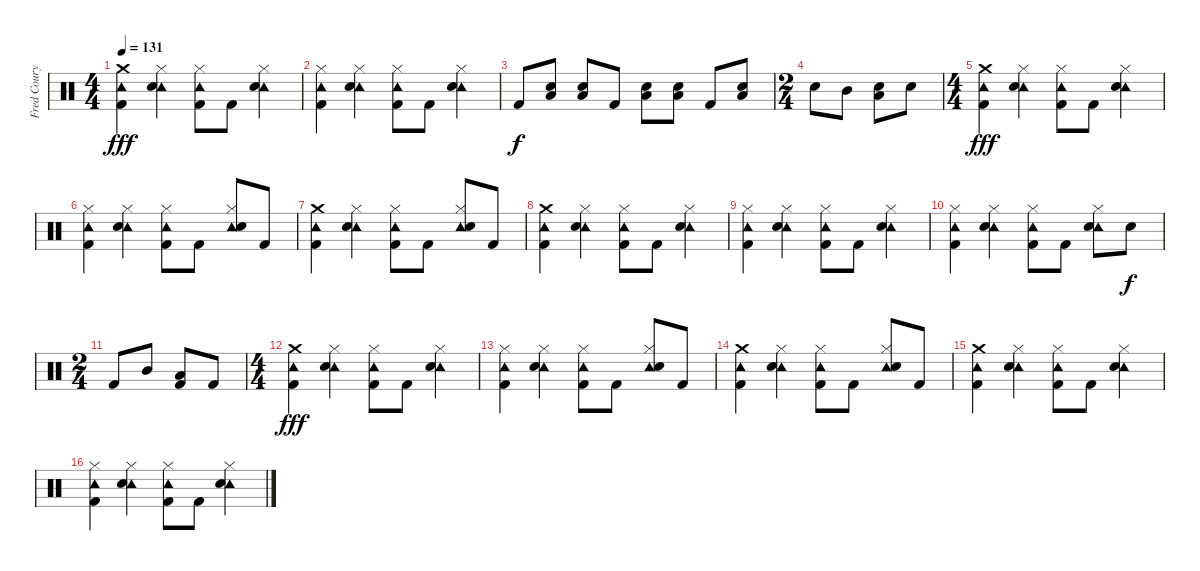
\track ("Fred Coury - Drums" "Fred Coury") {instrument percussion}
\staff {score}
\articulation defaults
\ts (4 4)
\tempo 131
\clef neutral
\ks c
("Crash medium (hit)" "Tambourine (hit)" "Kick (hit) 2").4{dy fff} ("Hi-Hat (closed)" "Tambourine (hit)" "Snare (hit) 2").4 ("Hi-Hat (closed)" "Tambourine (hit)" "Kick (hit) 2").8 "Kick (hit) 2".8 ("Hi-Hat (closed)" "Tambourine (hit)" "Snare (hit) 2").4 |
("Hi-Hat (closed)" "Tambourine (hit)" "Kick (hit) 2").4 ("Hi-Hat (closed)" "Tambourine (hit)" "Snare (hit) 2").4 ("Hi-Hat (closed)" "Tambourine (hit)" "Kick (hit) 2").8 "Kick (hit) 2".8 ("Hi-Hat (closed)" "Tambourine (hit)" "Snare (hit) 2").4 |
"Kick (hit) 2".8{dy f} ("Snare (hit) 2" "Low Tom (hit)").8 ("Snare (hit) 2" "Low Tom (hit)").8 "Kick (hit) 2".8 ("Snare (hit) 2" "Low Tom (hit)").8 ("Snare (hit) 2" "Low Tom (hit)").8 "Kick (hit) 2".8 ("Snare (hit) 2" "Low Tom (hit)").8 |
\ts (2 4)
"Snare (hit) 2".8 "Mid Tom (hit)".8 ("Low Tom (hit)" "Snare (hit) 2").8 "Snare (hit) 2".8 |
\ts (4 4)
("Crash medium (hit)" "Tambourine (hit)" "Kick (hit) 2").4{dy fff} ("Hi-Hat (closed)" "Tambourine (hit)" "Snare (hit) 2").4 ("Hi-Hat (closed)" "Tambourine (hit)" "Kick (hit) 2").8 "Kick (hit) 2".8 ("Hi-Hat (closed)" "Tambourine (hit)" "Snare (hit) 2").4 |
("Hi-Hat (closed)" "Tambourine (hit)" "Kick (hit) 2").4 ("Hi-Hat (closed)" "Tambourine (hit)" "Snare (hit) 2").4 ("Hi-Hat (closed)" "Tambourine (hit)" "Kick (hit) 2").8 "Kick (hit) 2".8 ("Hi-Hat (closed)" "Tambourine (hit)" "Snare (hit) 2").8 "Kick (hit) 2".8 |
("Crash medium (hit)" "Tambourine (hit)" "Kick (hit) 2").4 ("Hi-Hat (closed)" "Tambourine (hit)" "Snare (hit) 2").4 ("Hi-Hat (closed)" "Tambourine (hit)" "Kick (hit) 2").8 "Kick (hit) 2".8 ("Hi-Hat (closed)" "Tambourine (hit)" "Snare (hit) 2").8 "Kick (hit) 2".8 |
("Crash medium (hit)" "Tambourine (hit)" "Kick (hit) 2").4 ("Hi-Hat (closed)" "Tambourine (hit)" "Snare (hit) 2").4 ("Hi-Hat (closed)" "Tambourine (hit)" "Kick (hit) 2").8 "Kick (hit) 2".8 ("Hi-Hat (closed)" "Tambourine (hit)" "Snare (hit) 2").4 |
("Hi-Hat (closed)" "Tambourine (hit)" "Kick (hit) 2").4 ("Hi-Hat (closed)" "Tambourine (hit)" "Snare (hit) 2").4 ("Hi-Hat (closed)" "Tambourine (hit)" "Kick (hit) 2").8 "Kick (hit) 2".8 ("Hi-Hat (closed)" "Tambourine (hit)" "Snare (hit) 2").4 |
("Hi-Hat (closed)" "Tambourine (hit)" "Kick (hit) 2").4 ("Hi-Hat (closed)" "Tambourine (hit)" "Snare (hit) 2").4 ("Hi-Hat (closed)" "Tambourine (hit)" "Kick (hit) 2").8 "Kick (hit) 2".8 ("Hi-Hat (closed)" "Tambourine (hit)" "Snare (hit) 2").8 "Snare (hit) 2".8{dy f} |
\ts (2 4)
"Kick (hit) 2".8 "Mid Tom (hit)".8 ("Low Tom (hit)" "Kick (hit) 2").8 "Kick (hit) 2".8 |
\ts (4 4)
("Crash medium (hit)" "Tambourine (hit)" "Kick (hit) 2").4{dy fff} ("Hi-Hat (closed)" "Tambourine (hit)" "Snare (hit) 2").4 ("Hi-Hat (closed)" "Tambourine (hit)" "Kick (hit) 2").8 "Kick (hit) 2".8 ("Hi-Hat (closed)" "Tambourine (hit)" "Snare (hit) 2").4 |
("Hi-Hat (closed)" "Tambourine (hit)" "Kick (hit) 2").4 ("Hi-Hat (closed)" "Tambourine (hit)" "Snare (hit) 2").4 ("Hi-Hat (closed)" "Tambourine (hit)" "Kick (hit) 2").8 "Kick (hit) 2".8 ("Hi-Hat (closed)" "Tambourine (hit)" "Snare (hit) 2").8 "Kick (hit) 2".8 |
("Crash medium (hit)" "Tambourine (hit)" "Kick (hit) 2").4 ("Hi-Hat (closed)" "Tambourine (hit)" "Snare (hit) 2").4 ("Hi-Hat (closed)" "Tambourine (hit)" "Kick (hit) 2").8 "Kick (hit) 2".8 ("Hi-Hat (closed)" "Tambourine (hit)" "Snare (hit) 2").8 "Kick (hit) 2".8 |
("Crash medium (hit)" "Tambourine (hit)" "Kick (hit) 2").4 ("Hi-Hat (closed)" "Tambourine (hit)" "Snare (hit) 2").4 ("Hi-Hat (closed)" "Tambourine (hit)" "Kick (hit) 2").8 "Kick (hit) 2".8 ("Hi-Hat (closed)" "Tambourine (hit)" "Snare (hit) 2").4 |
("Hi-Hat (closed)" "Tambourine (hit)" "Kick (hit) 2").4 ("Hi-Hat (closed)" "Tambourine (hit)" "Snare (hit) 2").4 ("Hi-Hat (closed)" "Tambourine (hit)" "Kick (hit) 2").8 "Kick (hit) 2".8 ("Hi-Hat (closed)" "Tambourine (hit)" "Snare (hit) 2").4
